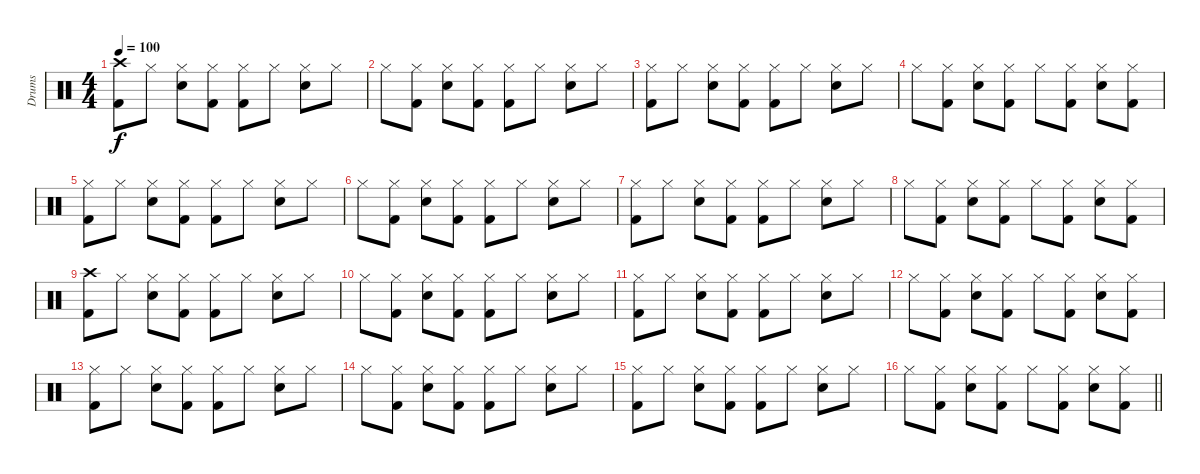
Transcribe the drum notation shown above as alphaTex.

\track ("Drums" "Drums") {instrument percussion}
\staff {score}
\articulation defaults
\ts (4 4)
\tempo 100
\clef neutral
\ks c
("Crash high (hit)" "Kick (hit) 2").8{dy f} "Hi-Hat (closed)".8 ("Hi-Hat (closed)" "Snare (hit) 2").8 ("Hi-Hat (closed)" "Kick (hit) 2").8 ("Hi-Hat (closed)" "Kick (hit) 2").8 "Hi-Hat (closed)".8 ("Hi-Hat (closed)" "Snare (hit) 2").8 "Hi-Hat (closed)".8 |
"Hi-Hat (closed)".8 ("Hi-Hat (closed)" "Kick (hit) 2").8 ("Hi-Hat (closed)" "Snare (hit) 2").8 ("Hi-Hat (closed)" "Kick (hit) 2").8 ("Hi-Hat (closed)" "Kick (hit) 2").8 "Hi-Hat (closed)".8 ("Hi-Hat (closed)" "Snare (hit) 2").8 "Hi-Hat (closed)".8 |
("Hi-Hat (closed)" "Kick (hit) 2").8 "Hi-Hat (closed)".8 ("Hi-Hat (closed)" "Snare (hit) 2").8 ("Hi-Hat (closed)" "Kick (hit) 2").8 ("Hi-Hat (closed)" "Kick (hit) 2").8 "Hi-Hat (closed)".8 ("Hi-Hat (closed)" "Snare (hit) 2").8 "Hi-Hat (closed)".8 |
"Hi-Hat (closed)".8 ("Hi-Hat (closed)" "Kick (hit) 2").8 ("Hi-Hat (closed)" "Snare (hit) 2").8 ("Hi-Hat (closed)" "Kick (hit) 2").8 "Hi-Hat (closed)".8 ("Hi-Hat (closed)" "Kick (hit) 2").8 ("Hi-Hat (closed)" "Snare (hit) 2").8 ("Hi-Hat (closed)" "Kick (hit) 2").8 |
("Hi-Hat (closed)" "Kick (hit) 2").8 "Hi-Hat (closed)".8 ("Hi-Hat (closed)" "Snare (hit) 2").8 ("Hi-Hat (closed)" "Kick (hit) 2").8 ("Hi-Hat (closed)" "Kick (hit) 2").8 "Hi-Hat (closed)".8 ("Hi-Hat (closed)" "Snare (hit) 2").8 "Hi-Hat (closed)".8 |
"Hi-Hat (closed)".8 ("Hi-Hat (closed)" "Kick (hit) 2").8 ("Hi-Hat (closed)" "Snare (hit) 2").8 ("Hi-Hat (closed)" "Kick (hit) 2").8 ("Hi-Hat (closed)" "Kick (hit) 2").8 "Hi-Hat (closed)".8 ("Hi-Hat (closed)" "Snare (hit) 2").8 "Hi-Hat (closed)".8 |
("Hi-Hat (closed)" "Kick (hit) 2").8 "Hi-Hat (closed)".8 ("Hi-Hat (closed)" "Snare (hit) 2").8 ("Hi-Hat (closed)" "Kick (hit) 2").8 ("Hi-Hat (closed)" "Kick (hit) 2").8 "Hi-Hat (closed)".8 ("Hi-Hat (closed)" "Snare (hit) 2").8 "Hi-Hat (closed)".8 |
"Hi-Hat (closed)".8 ("Hi-Hat (closed)" "Kick (hit) 2").8 ("Hi-Hat (closed)" "Snare (hit) 2").8 ("Hi-Hat (closed)" "Kick (hit) 2").8 "Hi-Hat (closed)".8 ("Hi-Hat (closed)" "Kick (hit) 2").8 ("Hi-Hat (closed)" "Snare (hit) 2").8 ("Hi-Hat (closed)" "Kick (hit) 2").8 |
("Crash high (hit)" "Kick (hit) 2").8 "Hi-Hat (closed)".8 ("Hi-Hat (closed)" "Snare (hit) 2").8 ("Hi-Hat (closed)" "Kick (hit) 2").8 ("Hi-Hat (closed)" "Kick (hit) 2").8 "Hi-Hat (closed)".8 ("Hi-Hat (closed)" "Snare (hit) 2").8 "Hi-Hat (closed)".8 |
"Hi-Hat (closed)".8 ("Hi-Hat (closed)" "Kick (hit) 2").8 ("Hi-Hat (closed)" "Snare (hit) 2").8 ("Hi-Hat (closed)" "Kick (hit) 2").8 ("Hi-Hat (closed)" "Kick (hit) 2").8 "Hi-Hat (closed)".8 ("Hi-Hat (closed)" "Snare (hit) 2").8 "Hi-Hat (closed)".8 |
("Hi-Hat (closed)" "Kick (hit) 2").8 "Hi-Hat (closed)".8 ("Hi-Hat (closed)" "Snare (hit) 2").8 ("Hi-Hat (closed)" "Kick (hit) 2").8 ("Hi-Hat (closed)" "Kick (hit) 2").8 "Hi-Hat (closed)".8 ("Hi-Hat (closed)" "Snare (hit) 2").8 "Hi-Hat (closed)".8 |
"Hi-Hat (closed)".8 ("Hi-Hat (closed)" "Kick (hit) 2").8 ("Hi-Hat (closed)" "Snare (hit) 2").8 ("Hi-Hat (closed)" "Kick (hit) 2").8 "Hi-Hat (closed)".8 ("Hi-Hat (closed)" "Kick (hit) 2").8 ("Hi-Hat (closed)" "Snare (hit) 2").8 ("Hi-Hat (closed)" "Kick (hit) 2").8 |
("Hi-Hat (closed)" "Kick (hit) 2").8 "Hi-Hat (closed)".8 ("Hi-Hat (closed)" "Snare (hit) 2").8 ("Hi-Hat (closed)" "Kick (hit) 2").8 ("Hi-Hat (closed)" "Kick (hit) 2").8 "Hi-Hat (closed)".8 ("Hi-Hat (closed)" "Snare (hit) 2").8 "Hi-Hat (closed)".8 |
"Hi-Hat (closed)".8 ("Hi-Hat (closed)" "Kick (hit) 2").8 ("Hi-Hat (closed)" "Snare (hit) 2").8 ("Hi-Hat (closed)" "Kick (hit) 2").8 ("Hi-Hat (closed)" "Kick (hit) 2").8 "Hi-Hat (closed)".8 ("Hi-Hat (closed)" "Snare (hit) 2").8 "Hi-Hat (closed)".8 |
("Hi-Hat (closed)" "Kick (hit) 2").8 "Hi-Hat (closed)".8 ("Hi-Hat (closed)" "Snare (hit) 2").8 ("Hi-Hat (closed)" "Kick (hit) 2").8 ("Hi-Hat (closed)" "Kick (hit) 2").8 "Hi-Hat (closed)".8 ("Hi-Hat (closed)" "Snare (hit) 2").8 "Hi-Hat (closed)".8 |
\barLineRight lightlight "Hi-Hat (closed)".8
("Hi-Hat (closed)" "Kick (hit) 2").8 ("Hi-Hat (closed)" "Snare (hit) 2").8 ("Hi-Hat (closed)" "Kick (hit) 2").8 "Hi-Hat (closed)".8 ("Hi-Hat (closed)" "Kick (hit) 2").8 ("Hi-Hat (closed)" "Snare (hit) 2").8 ("Hi-Hat (closed)" "Kick (hit) 2").8
